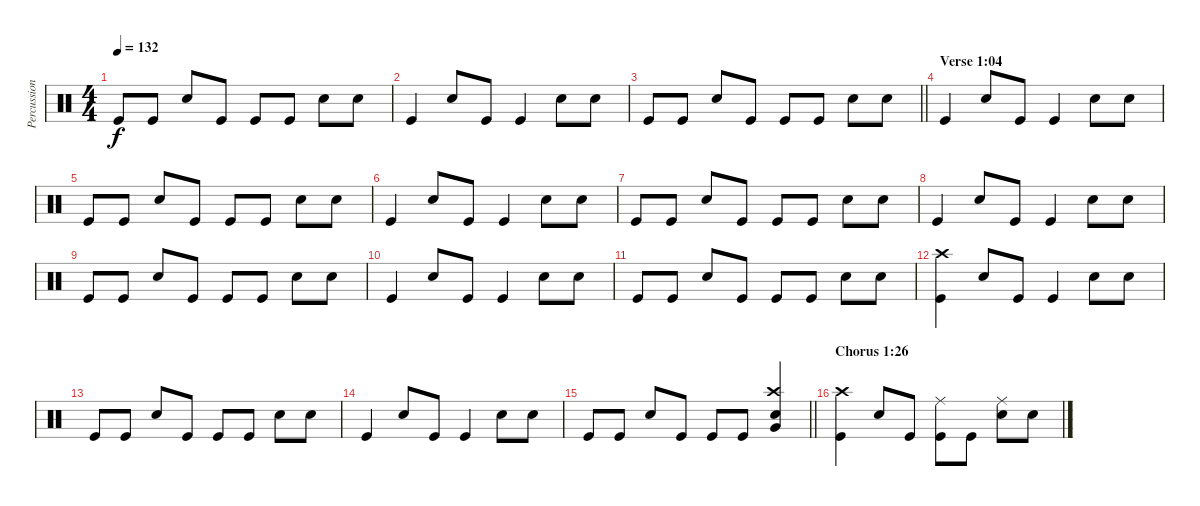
\track ("Percussion" "Percussion") {instrument percussion}
\staff {score}
\articulation defaults
\ts (4 4)
\tempo 132
\clef neutral
\ks c "Kick (hit)".8{dy f} "Kick (hit)".8 "Electric Snare (hit)".8 "Kick (hit)".8 "Kick (hit)".8 "Kick (hit)".8 "Electric Snare (hit)".8 "Electric Snare (hit)".8
|
"Kick (hit)".4 "Electric Snare (hit)".8 "Kick (hit)".8 "Kick (hit)".4 "Electric Snare (hit)".8 "Electric Snare (hit)".8 |
\barLineRight lightlight "Kick (hit)".8 "Kick (hit)".8 "Electric Snare (hit)".8 "Kick (hit)".8 "Kick (hit)".8 "Kick (hit)".8 "Electric Snare (hit)".8 "Electric Snare (hit)".8
|
\section ("" "Verse 1:04")
"Kick (hit)".4 "Electric Snare (hit)".8 "Kick (hit)".8 "Kick (hit)".4 "Electric Snare (hit)".8 "Electric Snare (hit)".8 |
"Kick (hit)".8 "Kick (hit)".8 "Electric Snare (hit)".8 "Kick (hit)".8 "Kick (hit)".8 "Kick (hit)".8 "Electric Snare (hit)".8 "Electric Snare (hit)".8 |
"Kick (hit)".4 "Electric Snare (hit)".8 "Kick (hit)".8 "Kick (hit)".4 "Electric Snare (hit)".8 "Electric Snare (hit)".8 |
"Kick (hit)".8 "Kick (hit)".8 "Electric Snare (hit)".8 "Kick (hit)".8 "Kick (hit)".8 "Kick (hit)".8 "Electric Snare (hit)".8 "Electric Snare (hit)".8 |
"Kick (hit)".4 "Electric Snare (hit)".8 "Kick (hit)".8 "Kick (hit)".4 "Electric Snare (hit)".8 "Electric Snare (hit)".8 |
"Kick (hit)".8 "Kick (hit)".8 "Electric Snare (hit)".8 "Kick (hit)".8 "Kick (hit)".8 "Kick (hit)".8 "Electric Snare (hit)".8 "Electric Snare (hit)".8 |
"Kick (hit)".4 "Electric Snare (hit)".8 "Kick (hit)".8 "Kick (hit)".4 "Electric Snare (hit)".8 "Electric Snare (hit)".8 |
"Kick (hit)".8 "Kick (hit)".8 "Electric Snare (hit)".8 "Kick (hit)".8 "Kick (hit)".8 "Kick (hit)".8 "Electric Snare (hit)".8 "Electric Snare (hit)".8 |
("Crash high (hit)" "Kick (hit)").4 "Electric Snare (hit)".8 "Kick (hit)".8 "Kick (hit)".4 "Electric Snare (hit)".8 "Electric Snare (hit)".8 |
"Kick (hit)".8 "Kick (hit)".8 "Electric Snare (hit)".8 "Kick (hit)".8 "Kick (hit)".8 "Kick (hit)".8 "Electric Snare (hit)".8 "Electric Snare (hit)".8 |
"Kick (hit)".4 "Electric Snare (hit)".8 "Kick (hit)".8 "Kick (hit)".4 "Electric Snare (hit)".8 "Electric Snare (hit)".8 |
\barLineRight lightlight "Kick (hit)".8 "Kick (hit)".8 "Electric Snare (hit)".8 "Kick (hit)".8 "Kick (hit)".8 "Kick (hit)".8
("Crash high (hit)" "Electric Snare (hit)" "Very Low Tom (hit)").4 |
\section ("" "Chorus 1:26")
("Crash high (hit)" "Kick (hit)").4 "Electric Snare (hit)".8 "Kick (hit)".8 ("Ride (middle)" "Kick (hit)").8 "Kick (hit)".8 ("Ride (middle)" "Electric Snare (hit)").8 "Electric Snare (hit)".8
